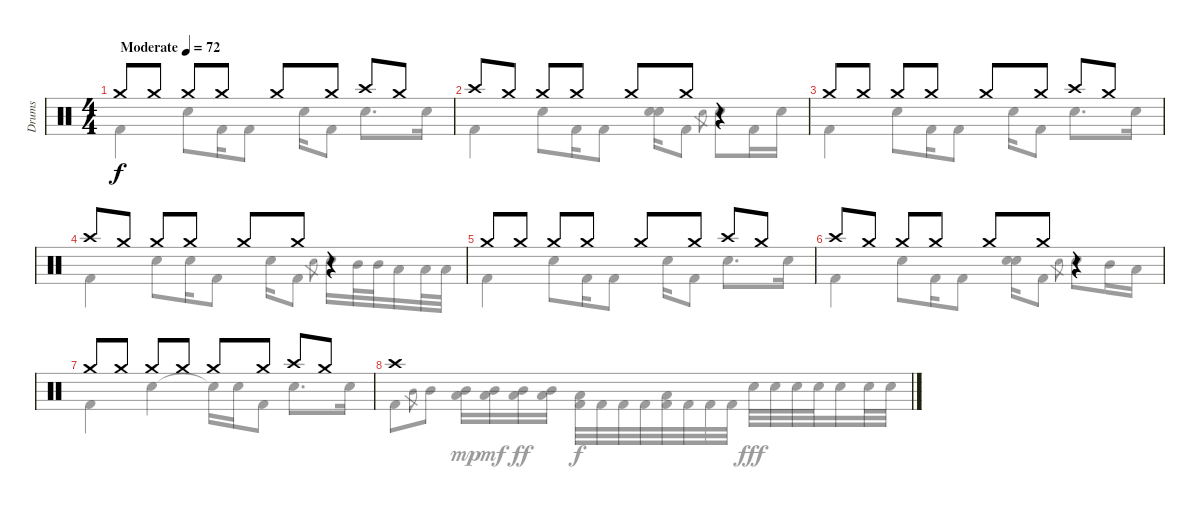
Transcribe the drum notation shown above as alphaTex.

\track ("Drums" "Drums") {instrument percussion}
\staff {score}
\articulation defaults
\voice
\ts (4 4)
\tempo (72 "Moderate")
\clef neutral
\ks c "Crash medium (hit)".8{dy f} "Crash medium (hit)".8 "Crash medium (hit)".8 "Crash medium (hit)".8 "Crash medium (hit)".8 "Crash medium (hit)".8 "Crash high (hit)".8 "Crash medium (hit)".8
|
"Crash high (hit)".8 "Crash medium (hit)".8 "Crash medium (hit)".8 "Crash medium (hit)".8 "Crash medium (hit)".8 "Crash medium (hit)".8 r.4 |
"Crash medium (hit)".8 "Crash medium (hit)".8 "Crash medium (hit)".8 "Crash medium (hit)".8 "Crash medium (hit)".8 "Crash medium (hit)".8 "Crash high (hit)".8 "Crash medium (hit)".8 |
"Crash high (hit)".8 "Crash medium (hit)".8 "Crash medium (hit)".8 "Crash medium (hit)".8 "Crash medium (hit)".8 "Crash medium (hit)".8 r.4 |
"Crash medium (hit)".8 "Crash medium (hit)".8 "Crash medium (hit)".8 "Crash medium (hit)".8 "Crash medium (hit)".8 "Crash medium (hit)".8 "Crash high (hit)".8 "Crash medium (hit)".8 |
"Crash high (hit)".8 "Crash medium (hit)".8 "Crash medium (hit)".8 "Crash medium (hit)".8 "Crash medium (hit)".8 "Crash medium (hit)".8 r.4 |
"Crash medium (hit)".8 "Crash medium (hit)".8 "Crash medium (hit)".8 "Crash medium (hit)".8 "Crash medium (hit)".8 "Crash medium (hit)".8 "Crash high (hit)".8 "Crash medium (hit)".8 |
"Crash high (hit)".1
\voice
\clef neutral
\ottava regular
\simile none
\ks c "Kick (hit) 2".4{dy f} "Electric Snare (hit)".8 "Kick (hit) 2".16 "Kick (hit) 2".8 "Electric Snare (hit)".16 "Kick (hit) 2".8 "Electric Snare (hit)".8{d} "Electric Snare (hit)".16
|
"Kick (hit) 2".4 "Electric Snare (hit)".8 "Kick (hit) 2".16 "Kick (hit) 2".8 ("Electric Snare (hit)" "Electric Snare (hit)").16 "Kick (hit) 2".8 "Electric Snare (hit)".8{gr} "Electric Snare (hit)".8 "Kick (hit) 2".16 "Electric Snare (hit)".16 |
"Kick (hit) 2".4 "Electric Snare (hit)".8 "Kick (hit) 2".16 "Kick (hit) 2".8 "Electric Snare (hit)".16 "Kick (hit) 2".8 "Electric Snare (hit)".8{d} "Electric Snare (hit)".16 |
"Kick (hit) 2".4 "Electric Snare (hit)".8 "Electric Snare (hit)".16 "Kick (hit) 2".8 "Electric Snare (hit)".16 "Kick (hit) 2".8 "Electric Snare (hit)".8{gr} "Electric Snare (hit)".16 "Mid Tom (hit)".32 "Mid Tom (hit)".32 "Low Tom (hit)".16 "Low Tom (hit)".32 "Low Tom (hit)".32 |
"Kick (hit) 2".4 "Electric Snare (hit)".8 "Kick (hit) 2".16 "Kick (hit) 2".8 "Electric Snare (hit)".16 "Kick (hit) 2".8 "Electric Snare (hit)".8{d} "Electric Snare (hit)".16 |
"Kick (hit) 2".4 "Electric Snare (hit)".8 "Kick (hit) 2".16 "Kick (hit) 2".8 ("Electric Snare (hit)" "Electric Snare (hit)").16 "Kick (hit) 2".8 "Electric Snare (hit)".8{gr} "Electric Snare (hit)".8 "Mid Tom (hit)".16 "Low Tom (hit)".16 |
"Kick (hit) 2".4 "Electric Snare (hit)".4 "Snare (hit)"{t}.16 "Electric Snare (hit)".16 "Kick (hit) 2".8 "Electric Snare (hit)".8{d} "Electric Snare (hit)".16 |
"Kick (hit) 2".8 "Mid Tom (hit)"{h}.8{gr} "Mid Tom (hit)".8 ("Low Tom (hit)" "Mid Tom (hit)").16{dy mp} ("Low Tom (hit)" "Mid Tom (hit)").16{dy mf} ("Low Tom (hit)" "Mid Tom (hit)").16{dy ff} ("Low Tom (hit)" "Mid Tom (hit)").16 ("Low Tom (hit)" "Kick (hit) 2").32{dy f} "Kick (hit) 2".32 "Kick (hit) 2".32 "Kick (hit) 2".32 ("Low Tom (hit)" "Kick (hit) 2").32 "Kick (hit) 2".32 "Kick (hit) 2".32 "Kick (hit) 2".32 "Electric Snare (hit)".32{dy fff} "Electric Snare (hit)".32 "Electric Snare (hit)".32 "Electric Snare (hit)".32 "Electric Snare (hit)".16 "Electric Snare (hit)".32 "Electric Snare (hit)".32
